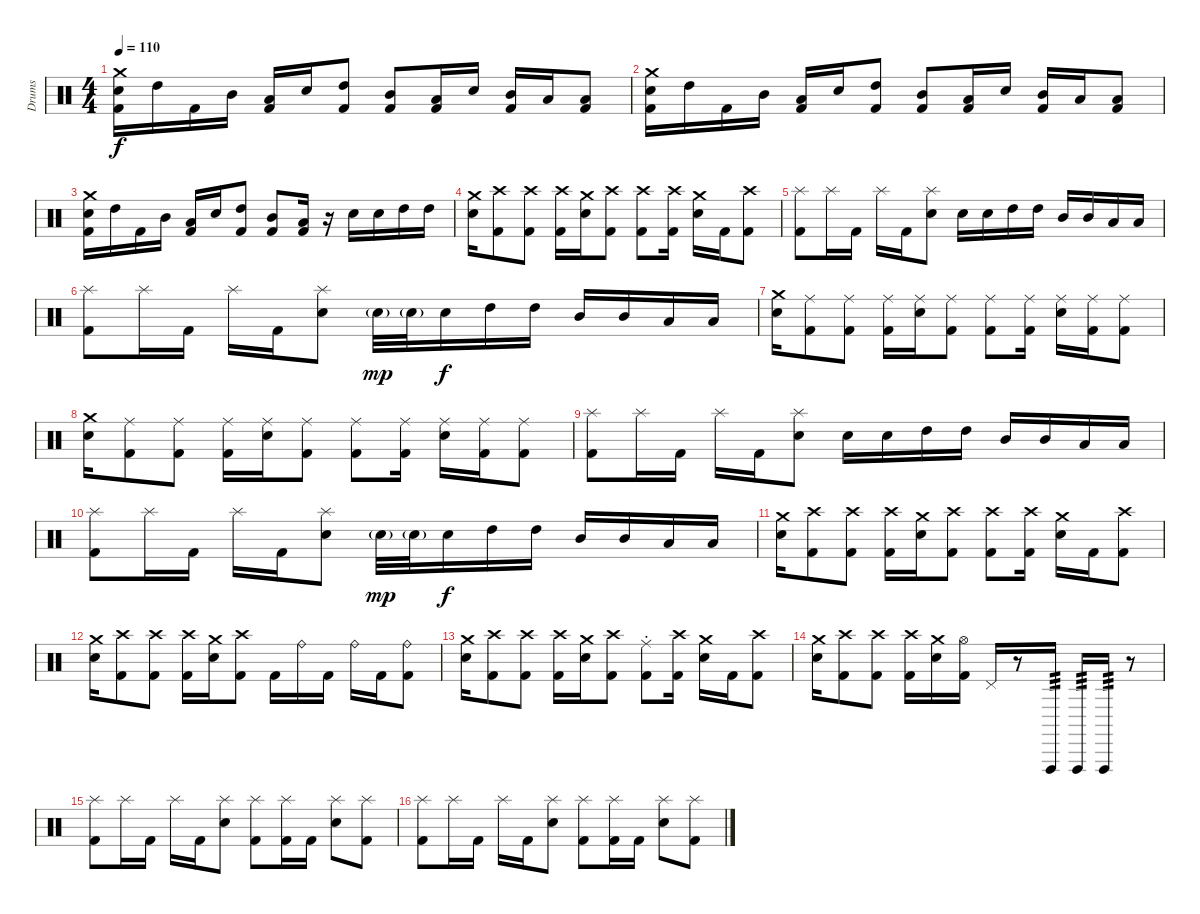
\track ("Drums" "Drums") {instrument percussion}
\staff {score}
\articulation defaults
\ts (4 4)
\tempo 110
\clef neutral
\ks c
("Crash medium (hit)" "Electric Snare (hit)" "Kick (hit) 2").16{dy f} "High Tom (hit)".16 "Kick (hit) 2".16 "Mid Tom (hit)".16 ("Low Tom (hit)" "Kick (hit) 2").16 "Electric Snare (hit)".16 ("High Tom (hit)" "Kick (hit) 2").8 ("Mid Tom (hit)" "Kick (hit) 2").8 ("Low Tom (hit)" "Kick (hit) 2").16 "Electric Snare (hit)".16 ("Mid Tom (hit)" "Kick (hit) 2").16 "Low Tom (hit)".16 ("Low Tom (hit)" "Kick (hit) 2").8 |
("Crash medium (hit)" "Electric Snare (hit)" "Kick (hit) 2").16 "High Tom (hit)".16 "Kick (hit) 2".16 "Mid Tom (hit)".16 ("Low Tom (hit)" "Kick (hit) 2").16 "Electric Snare (hit)".16 ("High Tom (hit)" "Kick (hit) 2").8 ("Mid Tom (hit)" "Kick (hit) 2").8 ("Low Tom (hit)" "Kick (hit) 2").16 "Electric Snare (hit)".16 ("Mid Tom (hit)" "Kick (hit) 2").16 "Low Tom (hit)".16 ("Low Tom (hit)" "Kick (hit) 2").8 |
("Crash medium (hit)" "Electric Snare (hit)" "Kick (hit) 2").16 "High Tom (hit)".16 "Kick (hit) 2".16 "Mid Tom (hit)".16 ("Low Tom (hit)" "Kick (hit) 2").16 "Electric Snare (hit)".16 ("High Tom (hit)" "Kick (hit) 2").8 ("Mid Tom (hit)" "Kick (hit) 2").8 ("Low Tom (hit)" "Kick (hit) 2").16 r.16 "Electric Snare (hit)".16 "Electric Snare (hit)".16 "High Tom (hit)".16 "High Tom (hit)".16 |
("Crash medium (hit)" "Electric Snare (hit)").16 ("Crash high (hit)" "Kick (hit) 2").8 ("Crash high (hit)" "Kick (hit) 2").8 ("Crash high (hit)" "Kick (hit) 2").16 ("Crash medium (hit)" "Electric Snare (hit)").16 ("Crash high (hit)" "Kick (hit) 2").8 ("Crash high (hit)" "Kick (hit) 2").8 ("Crash high (hit)" "Kick (hit) 2").16 ("Crash medium (hit)" "Electric Snare (hit)").16 "Kick (hit) 2".16 ("Crash high (hit)" "Kick (hit) 2").8 |
("Splash (hit)" "Kick (hit) 2").8 "Splash (hit)".16 "Kick (hit) 2".16 "Splash (hit)".16 "Kick (hit) 2".16 ("Splash (hit)" "Electric Snare (hit)").8 "Electric Snare (hit)".16 "Electric Snare (hit)".16 "High Tom (hit)".16 "High Tom (hit)".16 "Mid Tom (hit)".16 "Mid Tom (hit)".16 "Low Tom (hit)".16 "Low Tom (hit)".16 |
("Splash (hit)" "Kick (hit) 2").8 "Splash (hit)".16 "Kick (hit) 2".16 "Splash (hit)".16 "Kick (hit) 2".16 ("Splash (hit)" "Electric Snare (hit)").8 "Electric Snare (hit)"{g}.32{dy mp} "Electric Snare (hit)"{g}.32 "Electric Snare (hit)".16{dy f} "High Tom (hit)".16 "High Tom (hit)".16 "Mid Tom (hit)".16 "Mid Tom (hit)".16 "Low Tom (hit)".16 "Low Tom (hit)".16 |
("Crash medium (hit)" "Electric Snare (hit)").16 ("Ride (middle)" "Kick (hit) 2").8 ("Ride (middle)" "Kick (hit) 2").8 ("Ride (middle)" "Kick (hit) 2").16 ("Ride (middle)" "Electric Snare (hit)").16 ("Ride (middle)" "Kick (hit) 2").8 ("Ride (middle)" "Kick (hit) 2").8 ("Ride (middle)" "Kick (hit) 2").16 ("Ride (middle)" "Electric Snare (hit)").16 ("Ride (middle)" "Kick (hit) 2").16 ("Ride (middle)" "Kick (hit) 2").8 |
("Crash medium (hit)" "Electric Snare (hit)").16 ("Ride (middle)" "Kick (hit) 2").8 ("Ride (middle)" "Kick (hit) 2").8 ("Ride (middle)" "Kick (hit) 2").16 ("Ride (middle)" "Electric Snare (hit)").16 ("Ride (middle)" "Kick (hit) 2").8 ("Ride (middle)" "Kick (hit) 2").8 ("Ride (middle)" "Kick (hit) 2").16 ("Ride (middle)" "Electric Snare (hit)").16 ("Ride (middle)" "Kick (hit) 2").16 ("Ride (middle)" "Kick (hit) 2").8 |
("Splash (hit)" "Kick (hit) 2").8 "Splash (hit)".16 "Kick (hit) 2".16 "Splash (hit)".16 "Kick (hit) 2".16 ("Splash (hit)" "Electric Snare (hit)").8 "Electric Snare (hit)".16 "Electric Snare (hit)".16 "High Tom (hit)".16 "High Tom (hit)".16 "Mid Tom (hit)".16 "Mid Tom (hit)".16 "Low Tom (hit)".16 "Low Tom (hit)".16 |
("Splash (hit)" "Kick (hit) 2").8 "Splash (hit)".16 "Kick (hit) 2".16 "Splash (hit)".16 "Kick (hit) 2".16 ("Splash (hit)" "Electric Snare (hit)").8 "Electric Snare (hit)"{g}.32{dy mp} "Electric Snare (hit)"{g}.32 "Electric Snare (hit)".16{dy f} "High Tom (hit)".16 "High Tom (hit)".16 "Mid Tom (hit)".16 "Mid Tom (hit)".16 "Low Tom (hit)".16 "Low Tom (hit)".16 |
("Crash medium (hit)" "Electric Snare (hit)").16 ("Crash high (hit)" "Kick (hit) 2").8 ("Crash high (hit)" "Kick (hit) 2").8 ("Crash high (hit)" "Kick (hit) 2").16 ("Crash medium (hit)" "Electric Snare (hit)").16 ("Crash high (hit)" "Kick (hit) 2").8 ("Crash high (hit)" "Kick (hit) 2").8 ("Crash high (hit)" "Kick (hit) 2").16 ("Crash medium (hit)" "Electric Snare (hit)").16 "Kick (hit) 2".16 ("Crash high (hit)" "Kick (hit) 2").8 |
("Crash medium (hit)" "Electric Snare (hit)").16 ("Crash high (hit)" "Kick (hit) 2").8 ("Crash high (hit)" "Kick (hit) 2").8 ("Crash high (hit)" "Kick (hit) 2").16 ("Crash medium (hit)" "Electric Snare (hit)").16 ("Crash high (hit)" "Kick (hit) 2").8 "Kick (hit) 2".16 "Ride (bell)".16 "Kick (hit) 2".16 "Ride (bell)".16 "Kick (hit) 2".16 ("Ride (bell)" "Kick (hit) 2").8 |
("Crash medium (hit)" "Electric Snare (hit)").16 ("Crash high (hit)" "Kick (hit) 2").8 ("Crash high (hit)" "Kick (hit) 2").8 ("Crash high (hit)" "Kick (hit) 2").16 ("Crash medium (hit)" "Electric Snare (hit)").16 ("Crash high (hit)" "Kick (hit) 2").8 ("Ride (choke)" "Kick (hit) 2").8 ("Crash high (hit)" "Kick (hit) 2").16 ("Crash medium (hit)" "Electric Snare (hit)").16 "Kick (hit) 2".16 ("Crash high (hit)" "Kick (hit) 2").8 |
("Crash medium (hit)" "Electric Snare (hit)").16 ("Crash high (hit)" "Kick (hit) 2").8 ("Crash high (hit)" "Kick (hit) 2").8 ("Crash high (hit)" "Kick (hit) 2").16 ("Crash medium (hit)" "Electric Snare (hit)").16 ("Hi-Hat (open)" "Kick (hit) 2").16 "Pedal Hi-Hat (hit)".16 r.8 "Vibraslap (hit)".16{tp 3} "Vibraslap (hit)".16{tp 3} "Vibraslap (hit)".16{tp 3} r.8 |
("Splash (hit)" "Kick (hit) 2").8 "Splash (hit)".16 "Kick (hit) 2".16 "Splash (hit)".16 "Kick (hit) 2".16 ("Splash (hit)" "Electric Snare (hit)").8 ("Splash (hit)" "Kick (hit) 2").8 ("Splash (hit)" "Kick (hit) 2").16 "Kick (hit) 2".16 ("Splash (hit)" "Electric Snare (hit)").8 ("Splash (hit)" "Kick (hit) 2").8 |
("Splash (hit)" "Kick (hit) 2").8 "Splash (hit)".16 "Kick (hit) 2".16 "Splash (hit)".16 "Kick (hit) 2".16 ("Splash (hit)" "Electric Snare (hit)").8 ("Splash (hit)" "Kick (hit) 2").8 ("Splash (hit)" "Kick (hit) 2").16 "Kick (hit) 2".16 ("Splash (hit)" "Electric Snare (hit)").8 ("Splash (hit)" "Kick (hit) 2").8
